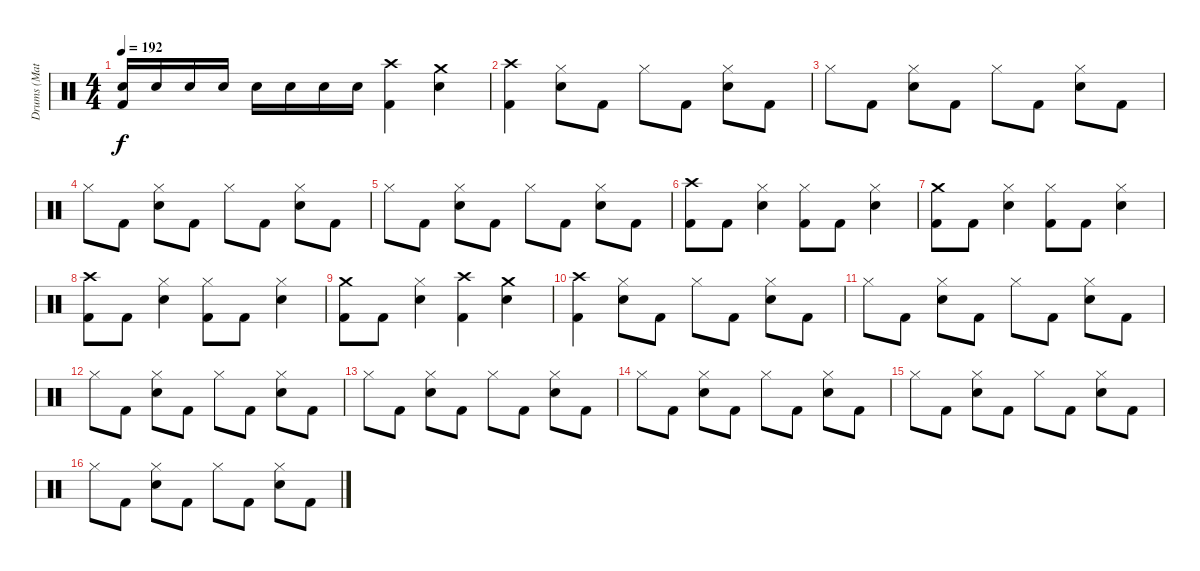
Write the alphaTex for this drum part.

\track ("Drums (Matt)" "Drums (Mat") {instrument percussion}
\staff {score}
\articulation defaults
\ts (4 4)
\tempo 192
\clef neutral
\ks c
("Snare (hit) 2" "Kick (hit) 2").16{dy f} "Snare (hit) 2".16 "Snare (hit) 2".16 "Snare (hit) 2".16 "Snare (hit) 2".16 "Snare (hit) 2".16 "Snare (hit) 2".16 "Snare (hit) 2".16 ("Crash high (hit)" "Kick (hit) 2").4 ("Crash medium (hit)" "Snare (hit) 2").4 |
("Crash high (hit)" "Kick (hit) 2").4 ("Hi-Hat (closed)" "Snare (hit) 2").8 "Kick (hit) 2".8 "Hi-Hat (closed)".8 "Kick (hit) 2".8 ("Hi-Hat (closed)" "Snare (hit) 2").8 "Kick (hit) 2".8 |
"Hi-Hat (closed)".8 "Kick (hit) 2".8 ("Hi-Hat (closed)" "Snare (hit) 2").8 "Kick (hit) 2".8 "Hi-Hat (closed)".8 "Kick (hit) 2".8 ("Hi-Hat (closed)" "Snare (hit) 2").8 "Kick (hit) 2".8 |
"Hi-Hat (closed)".8 "Kick (hit) 2".8 ("Hi-Hat (closed)" "Snare (hit) 2").8 "Kick (hit) 2".8 "Hi-Hat (closed)".8 "Kick (hit) 2".8 ("Hi-Hat (closed)" "Snare (hit) 2").8 "Kick (hit) 2".8 |
"Hi-Hat (closed)".8 "Kick (hit) 2".8 ("Hi-Hat (closed)" "Snare (hit) 2").8 "Kick (hit) 2".8 "Hi-Hat (closed)".8 "Kick (hit) 2".8 ("Hi-Hat (closed)" "Snare (hit) 2").8 "Kick (hit) 2".8 |
("Crash high (hit)" "Kick (hit) 2").8 "Kick (hit) 2".8 ("Hi-Hat (closed)" "Snare (hit) 2").4 ("Hi-Hat (closed)" "Kick (hit) 2").8 "Kick (hit) 2".8 ("Hi-Hat (closed)" "Snare (hit) 2").4 |
("Crash medium (hit)" "Kick (hit) 2").8 "Kick (hit) 2".8 ("Hi-Hat (closed)" "Snare (hit) 2").4 ("Hi-Hat (closed)" "Kick (hit) 2").8 "Kick (hit) 2".8 ("Hi-Hat (closed)" "Snare (hit) 2").4 |
("Crash high (hit)" "Kick (hit) 2").8 "Kick (hit) 2".8 ("Hi-Hat (closed)" "Snare (hit) 2").4 ("Hi-Hat (closed)" "Kick (hit) 2").8 "Kick (hit) 2".8 ("Hi-Hat (closed)" "Snare (hit) 2").4 |
("Crash medium (hit)" "Kick (hit) 2").8 "Kick (hit) 2".8 ("Hi-Hat (closed)" "Snare (hit) 2").4 ("Crash high (hit)" "Kick (hit) 2").4 ("Crash medium (hit)" "Snare (hit) 2").4 |
("Crash high (hit)" "Kick (hit) 2").4 ("Hi-Hat (closed)" "Snare (hit) 2").8 "Kick (hit) 2".8 "Hi-Hat (closed)".8 "Kick (hit) 2".8 ("Hi-Hat (closed)" "Snare (hit) 2").8 "Kick (hit) 2".8 |
"Hi-Hat (closed)".8 "Kick (hit) 2".8 ("Hi-Hat (closed)" "Snare (hit) 2").8 "Kick (hit) 2".8 "Hi-Hat (closed)".8 "Kick (hit) 2".8 ("Hi-Hat (closed)" "Snare (hit) 2").8 "Kick (hit) 2".8 |
"Hi-Hat (closed)".8 "Kick (hit) 2".8 ("Hi-Hat (closed)" "Snare (hit) 2").8 "Kick (hit) 2".8 "Hi-Hat (closed)".8 "Kick (hit) 2".8 ("Hi-Hat (closed)" "Snare (hit) 2").8 "Kick (hit) 2".8 |
"Hi-Hat (closed)".8 "Kick (hit) 2".8 ("Hi-Hat (closed)" "Snare (hit) 2").8 "Kick (hit) 2".8 "Hi-Hat (closed)".8 "Kick (hit) 2".8 ("Hi-Hat (closed)" "Snare (hit) 2").8 "Kick (hit) 2".8 |
"Hi-Hat (closed)".8 "Kick (hit) 2".8 ("Hi-Hat (closed)" "Snare (hit) 2").8 "Kick (hit) 2".8 "Hi-Hat (closed)".8 "Kick (hit) 2".8 ("Hi-Hat (closed)" "Snare (hit) 2").8 "Kick (hit) 2".8 |
"Hi-Hat (closed)".8 "Kick (hit) 2".8 ("Hi-Hat (closed)" "Snare (hit) 2").8 "Kick (hit) 2".8 "Hi-Hat (closed)".8 "Kick (hit) 2".8 ("Hi-Hat (closed)" "Snare (hit) 2").8 "Kick (hit) 2".8 |
"Hi-Hat (closed)".8 "Kick (hit) 2".8 ("Hi-Hat (closed)" "Snare (hit) 2").8 "Kick (hit) 2".8 "Hi-Hat (closed)".8 "Kick (hit) 2".8 ("Hi-Hat (closed)" "Snare (hit) 2").8 "Kick (hit) 2".8
